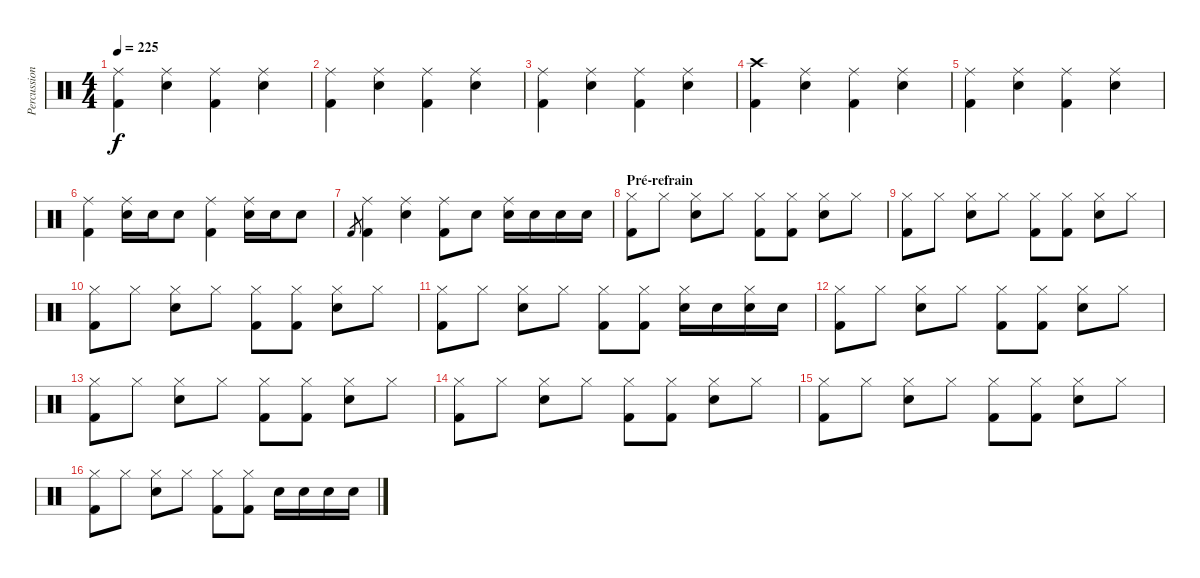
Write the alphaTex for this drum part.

\track ("Percussions" "Percussion") {instrument percussion}
\staff {score}
\articulation defaults
\ts (4 4)
\tempo 225
\clef neutral
\ks c
("Ride (middle)" "Kick (hit) 2").4{dy f} ("Ride (middle)" "Snare (hit) 2").4 ("Ride (middle)" "Kick (hit) 2").4 ("Ride (middle)" "Snare (hit) 2").4 |
("Ride (middle)" "Kick (hit) 2").4 ("Ride (middle)" "Snare (hit) 2").4 ("Ride (middle)" "Kick (hit) 2").4 ("Ride (middle)" "Snare (hit) 2").4 |
("Ride (middle)" "Kick (hit) 2").4 ("Ride (middle)" "Snare (hit) 2").4 ("Ride (middle)" "Kick (hit) 2").4 ("Ride (middle)" "Snare (hit) 2").4 |
("Crash high (hit)" "Kick (hit) 2").4 ("Ride (middle)" "Snare (hit) 2").4 ("Ride (middle)" "Kick (hit) 2").4 ("Ride (middle)" "Snare (hit) 2").4 |
("Ride (middle)" "Kick (hit) 2").4 ("Ride (middle)" "Snare (hit) 2").4 ("Ride (middle)" "Kick (hit) 2").4 ("Ride (middle)" "Snare (hit) 2").4 |
("Ride (middle)" "Kick (hit) 2").4 ("Ride (middle)" "Snare (hit) 2").16 "Snare (hit) 2".16 "Snare (hit) 2".8 ("Ride (middle)" "Kick (hit) 2").4 ("Ride (middle)" "Snare (hit) 2").16 "Snare (hit) 2".16 "Snare (hit) 2".8 |
"Kick (hit) 2".8{gr} ("Ride (middle)" "Kick (hit) 2").4 ("Ride (middle)" "Snare (hit) 2").4 ("Ride (middle)" "Kick (hit) 2").8 "Snare (hit) 2".8 ("Ride (middle)" "Snare (hit) 2").16 "Snare (hit) 2".16 "Snare (hit) 2".16 "Snare (hit) 2".16 |
\section ("" "Pré-refrain")
("Hi-Hat (closed)" "Kick (hit) 2").8 "Hi-Hat (closed)".8 ("Hi-Hat (closed)" "Snare (hit) 2").8 "Hi-Hat (closed)".8 ("Hi-Hat (closed)" "Kick (hit) 2").8 ("Hi-Hat (closed)" "Kick (hit) 2").8 ("Hi-Hat (closed)" "Snare (hit) 2").8 "Hi-Hat (closed)".8 |
("Hi-Hat (closed)" "Kick (hit) 2").8 "Hi-Hat (closed)".8 ("Hi-Hat (closed)" "Snare (hit) 2").8 "Hi-Hat (closed)".8 ("Hi-Hat (closed)" "Kick (hit) 2").8 ("Hi-Hat (closed)" "Kick (hit) 2").8 ("Hi-Hat (closed)" "Snare (hit) 2").8 "Hi-Hat (closed)".8 |
("Hi-Hat (closed)" "Kick (hit) 2").8 "Hi-Hat (closed)".8 ("Hi-Hat (closed)" "Snare (hit) 2").8 "Hi-Hat (closed)".8 ("Hi-Hat (closed)" "Kick (hit) 2").8 ("Hi-Hat (closed)" "Kick (hit) 2").8 ("Hi-Hat (closed)" "Snare (hit) 2").8 "Hi-Hat (closed)".8 |
("Hi-Hat (closed)" "Kick (hit) 2").8 "Hi-Hat (closed)".8 ("Hi-Hat (closed)" "Snare (hit) 2").8 "Hi-Hat (closed)".8 ("Hi-Hat (closed)" "Kick (hit) 2").8 ("Hi-Hat (closed)" "Kick (hit) 2").8 ("Hi-Hat (closed)" "Snare (hit) 2").16 "Snare (hit) 2".16 ("Hi-Hat (closed)" "Snare (hit) 2").16 "Snare (hit) 2".16 |
("Hi-Hat (closed)" "Kick (hit) 2").8 "Hi-Hat (closed)".8 ("Hi-Hat (closed)" "Snare (hit) 2").8 "Hi-Hat (closed)".8 ("Hi-Hat (closed)" "Kick (hit) 2").8 ("Hi-Hat (closed)" "Kick (hit) 2").8 ("Hi-Hat (closed)" "Snare (hit) 2").8 "Hi-Hat (closed)".8 |
("Hi-Hat (closed)" "Kick (hit) 2").8 "Hi-Hat (closed)".8 ("Hi-Hat (closed)" "Snare (hit) 2").8 "Hi-Hat (closed)".8 ("Hi-Hat (closed)" "Kick (hit) 2").8 ("Hi-Hat (closed)" "Kick (hit) 2").8 ("Hi-Hat (closed)" "Snare (hit) 2").8 "Hi-Hat (closed)".8 |
("Hi-Hat (closed)" "Kick (hit) 2").8 "Hi-Hat (closed)".8 ("Hi-Hat (closed)" "Snare (hit) 2").8 "Hi-Hat (closed)".8 ("Hi-Hat (closed)" "Kick (hit) 2").8 ("Hi-Hat (closed)" "Kick (hit) 2").8 ("Hi-Hat (closed)" "Snare (hit) 2").8 "Hi-Hat (closed)".8 |
("Hi-Hat (closed)" "Kick (hit) 2").8 "Hi-Hat (closed)".8 ("Hi-Hat (closed)" "Snare (hit) 2").8 "Hi-Hat (closed)".8 ("Hi-Hat (closed)" "Kick (hit) 2").8 ("Hi-Hat (closed)" "Kick (hit) 2").8 ("Hi-Hat (closed)" "Snare (hit) 2").8 "Hi-Hat (closed)".8 |
("Hi-Hat (closed)" "Kick (hit) 2").8 "Hi-Hat (closed)".8 ("Hi-Hat (closed)" "Snare (hit) 2").8 "Hi-Hat (closed)".8 ("Hi-Hat (closed)" "Kick (hit) 2").8 ("Hi-Hat (closed)" "Kick (hit) 2").8 "Snare (hit) 2".16 "Snare (hit) 2".16 "Snare (hit) 2".16 "Snare (hit) 2".16
